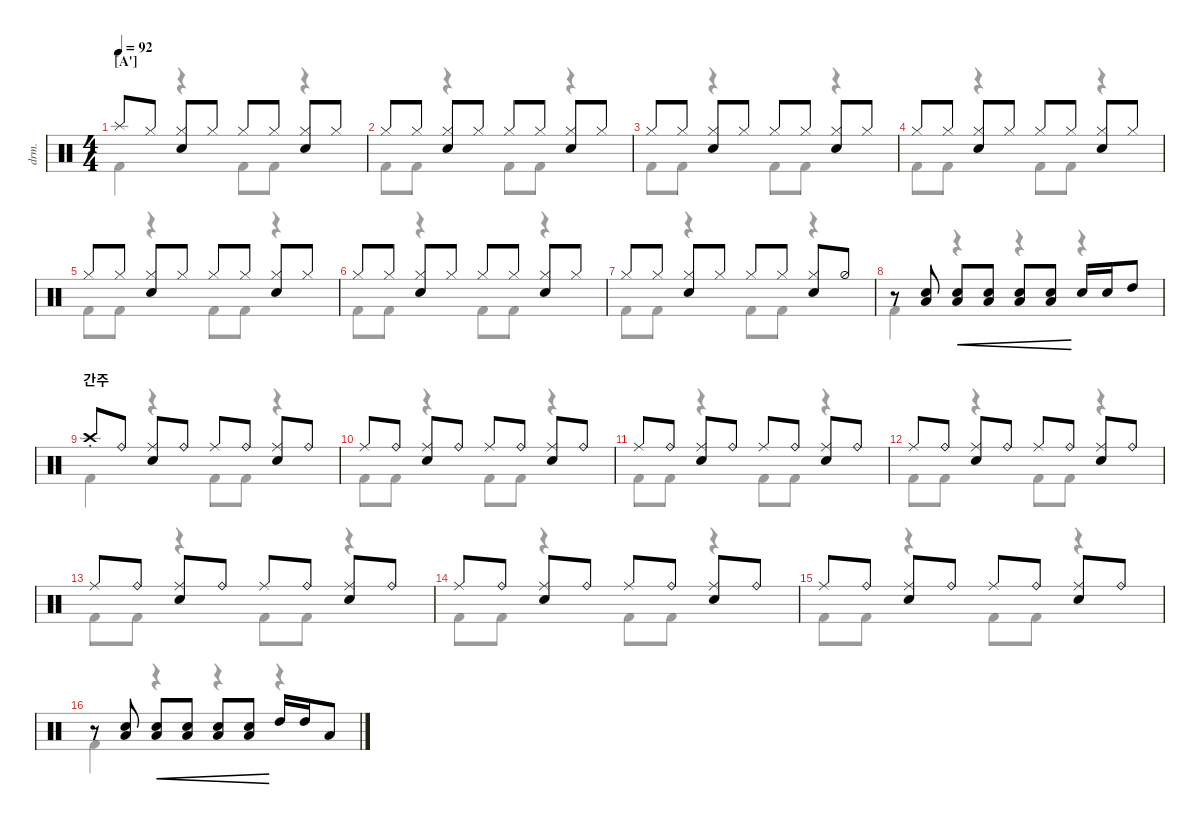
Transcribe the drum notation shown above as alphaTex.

\defaultSystemsLayout 4
\hideDynamics
\bracketExtendMode nobrackets
\track ("Drumkit" "drm.") {defaultSystemsLayout 4 instrument percussion}
\staff {score}
\articulation defaults
\voice
\ts (4 4)
\section ("A'" "")
\tempo 92
\clef neutral
\ks c "Splash (hit)".8{dy mf beam Up} "Hi-Hat (closed)".8{beam Up}
("Hi-Hat (closed)" "Snare (hit) 2").8{beam Up} "Hi-Hat (closed)".8{beam Up} "Hi-Hat (closed)".8{beam Up} "Hi-Hat (closed)".8{beam Up} ("Hi-Hat (closed)" "Snare (hit) 2").8{beam Up} "Hi-Hat (closed)".8{beam Up} |
"Hi-Hat (closed)".8{beam Up} "Hi-Hat (closed)".8{beam Up} ("Hi-Hat (closed)" "Snare (hit) 2").8{beam Up} "Hi-Hat (closed)".8{beam Up} "Hi-Hat (closed)".8{beam Up} "Hi-Hat (closed)".8{beam Up} ("Hi-Hat (closed)" "Snare (hit) 2").8{beam Up} "Hi-Hat (closed)".8{beam Up} |
"Hi-Hat (closed)".8{beam Up} "Hi-Hat (closed)".8{beam Up} ("Hi-Hat (closed)" "Snare (hit) 2").8{beam Up} "Hi-Hat (closed)".8{beam Up} "Hi-Hat (closed)".8{beam Up} "Hi-Hat (closed)".8{beam Up} ("Hi-Hat (closed)" "Snare (hit) 2").8{beam Up} "Hi-Hat (closed)".8{beam Up} |
"Hi-Hat (closed)".8{beam Up} "Hi-Hat (closed)".8{beam Up} ("Hi-Hat (closed)" "Snare (hit) 2").8{beam Up} "Hi-Hat (closed)".8{beam Up} "Hi-Hat (closed)".8{beam Up} "Hi-Hat (closed)".8{beam Up} ("Hi-Hat (closed)" "Snare (hit) 2").8{beam Up} "Hi-Hat (closed)".8{beam Up} |
"Hi-Hat (closed)".8{beam Up} "Hi-Hat (closed)".8{beam Up} ("Hi-Hat (closed)" "Snare (hit) 2").8{beam Up} "Hi-Hat (closed)".8{beam Up} "Hi-Hat (closed)".8{beam Up} "Hi-Hat (closed)".8{beam Up} ("Hi-Hat (closed)" "Snare (hit) 2").8{beam Up} "Hi-Hat (closed)".8{beam Up} |
"Hi-Hat (closed)".8{beam Up} "Hi-Hat (closed)".8{beam Up} ("Hi-Hat (closed)" "Snare (hit) 2").8{beam Up} "Hi-Hat (closed)".8{beam Up} "Hi-Hat (closed)".8{beam Up} "Hi-Hat (closed)".8{beam Up} ("Hi-Hat (closed)" "Snare (hit) 2").8{beam Up} "Hi-Hat (closed)".8{beam Up} |
"Hi-Hat (closed)".8{beam Up} "Hi-Hat (closed)".8{beam Up} ("Hi-Hat (closed)" "Snare (hit) 2").8{beam Up} "Hi-Hat (closed)".8{beam Up} "Hi-Hat (closed)".8{beam Up} "Hi-Hat (closed)".8{beam Up} ("Hi-Hat (closed)" "Snare (hit) 2").8{beam Up} "Hi-Hat (half)".8{beam Up} |
r.8{beam Up} ("Low Tom (hit)" "Snare (hit) 2").8{beam Up} ("Low Tom (hit)" "Snare (hit) 2").8{cre beam Up} ("Low Tom (hit)" "Snare (hit) 2").8{cre beam Up} ("Low Tom (hit)" "Snare (hit) 2").8{cre beam Up} ("Low Tom (hit)" "Snare (hit) 2").8{cre beam Up} "Snare (hit) 2".16{beam Up} "Snare (hit) 2".16{beam Up} "High Tom (hit)".8{beam Up} |
\section ("" "간주")
"Crash high (choke)".8{beam Up} "Ride (bell)".8{beam Up} ("Ride (middle)" "Snare (hit) 2").8{beam Up} "Ride (bell)".8{beam Up} "Ride (middle)".8{beam Up} "Ride (bell)".8{beam Up} ("Ride (middle)" "Snare (hit) 2").8{beam Up} "Ride (bell)".8{beam Up} |
"Ride (middle)".8{beam Up} "Ride (bell)".8{beam Up} ("Ride (middle)" "Snare (hit) 2").8{beam Up} "Ride (bell)".8{beam Up} "Ride (middle)".8{beam Up} "Ride (bell)".8{beam Up} ("Ride (middle)" "Snare (hit) 2").8{beam Up} "Ride (bell)".8{beam Up} |
"Ride (middle)".8{beam Up} "Ride (bell)".8{beam Up} ("Ride (middle)" "Snare (hit) 2").8{beam Up} "Ride (bell)".8{beam Up} "Ride (middle)".8{beam Up} "Ride (bell)".8{beam Up} ("Ride (middle)" "Snare (hit) 2").8{beam Up} "Ride (bell)".8{beam Up} |
"Ride (middle)".8{beam Up} "Ride (bell)".8{beam Up} ("Ride (middle)" "Snare (hit) 2").8{beam Up} "Ride (bell)".8{beam Up} "Ride (middle)".8{beam Up} "Ride (bell)".8{beam Up} ("Ride (middle)" "Snare (hit) 2").8{beam Up} "Ride (bell)".8{beam Up} |
"Ride (middle)".8{beam Up} "Ride (bell)".8{beam Up} ("Ride (middle)" "Snare (hit) 2").8{beam Up} "Ride (bell)".8{beam Up} "Ride (middle)".8{beam Up} "Ride (bell)".8{beam Up} ("Ride (middle)" "Snare (hit) 2").8{beam Up} "Ride (bell)".8{beam Up} |
"Ride (middle)".8{beam Up} "Ride (bell)".8{beam Up} ("Ride (middle)" "Snare (hit) 2").8{beam Up} "Ride (bell)".8{beam Up} "Ride (middle)".8{beam Up} "Ride (bell)".8{beam Up} ("Ride (middle)" "Snare (hit) 2").8{beam Up} "Ride (bell)".8{beam Up} |
"Ride (middle)".8{beam Up} "Ride (bell)".8{beam Up} ("Ride (middle)" "Snare (hit) 2").8{beam Up} "Ride (bell)".8{beam Up} "Ride (middle)".8{beam Up} "Ride (bell)".8{beam Up} ("Ride (middle)" "Snare (hit) 2").8{beam Up} "Ride (bell)".8{beam Up} |
r.8{beam Up} ("Low Tom (hit)" "Snare (hit) 2").8{beam Up} ("Low Tom (hit)" "Snare (hit) 2").8{cre beam Up} ("Low Tom (hit)" "Snare (hit) 2").8{cre beam Up} ("Low Tom (hit)" "Snare (hit) 2").8{cre beam Up} ("Low Tom (hit)" "Snare (hit) 2").8{cre beam Up} "High Tom (hit)".16{beam Up} "High Tom (hit)".16{beam Up} "Low Tom (hit)".8{beam Up}
\voice
\clef neutral
\ottava regular
\simile none
\ks c "Kick (hit) 2".4{dy mf beam Down}
r.4{beam Down} "Kick (hit) 2".8{beam Down} "Kick (hit) 2".8{beam Down} r.4{beam Down} |
"Kick (hit) 2".8{beam Down} "Kick (hit) 2".8{beam Down} r.4{beam Down} "Kick (hit) 2".8{beam Down} "Kick (hit) 2".8{beam Down} r.4{beam Down} |
"Kick (hit) 2".8{beam Down} "Kick (hit) 2".8{beam Down} r.4{beam Down} "Kick (hit) 2".8{beam Down} "Kick (hit) 2".8{beam Down} r.4{beam Down} |
"Kick (hit) 2".8{beam Down} "Kick (hit) 2".8{beam Down} r.4{beam Down} "Kick (hit) 2".8{beam Down} "Kick (hit) 2".8{beam Down} r.4{beam Down} |
"Kick (hit) 2".8{beam Down} "Kick (hit) 2".8{beam Down} r.4{beam Down} "Kick (hit) 2".8{beam Down} "Kick (hit) 2".8{beam Down} r.4{beam Down} |
"Kick (hit) 2".8{beam Down} "Kick (hit) 2".8{beam Down} r.4{beam Down} "Kick (hit) 2".8{beam Down} "Kick (hit) 2".8{beam Down} r.4{beam Down} |
"Kick (hit) 2".8{beam Down} "Kick (hit) 2".8{beam Down} r.4{beam Down} "Kick (hit) 2".8{beam Down} "Kick (hit) 2".8{beam Down} r.4{beam Down} |
"Kick (hit) 2".4{beam Down} r.4{beam Down} r.4{beam Down} r.4{beam Down} |
"Kick (hit) 2".4{beam Down} r.4{beam Down} "Kick (hit) 2".8{beam Down} "Kick (hit) 2".8{beam Down} r.4{beam Down} |
"Kick (hit) 2".8{beam Down} "Kick (hit) 2".8{beam Down} r.4{beam Down} "Kick (hit) 2".8{beam Down} "Kick (hit) 2".8{beam Down} r.4{beam Down} |
"Kick (hit) 2".8{beam Down} "Kick (hit) 2".8{beam Down} r.4{beam Down} "Kick (hit) 2".8{beam Down} "Kick (hit) 2".8{beam Down} r.4{beam Down} |
"Kick (hit) 2".8{beam Down} "Kick (hit) 2".8{beam Down} r.4{beam Down} "Kick (hit) 2".8{beam Down} "Kick (hit) 2".8{beam Down} r.4{beam Down} |
"Kick (hit) 2".8{beam Down} "Kick (hit) 2".8{beam Down} r.4{beam Down} "Kick (hit) 2".8{beam Down} "Kick (hit) 2".8{beam Down} r.4{beam Down} |
"Kick (hit) 2".8{beam Down} "Kick (hit) 2".8{beam Down} r.4{beam Down} "Kick (hit) 2".8{beam Down} "Kick (hit) 2".8{beam Down} r.4{beam Down} |
"Kick (hit) 2".8{beam Down} "Kick (hit) 2".8{beam Down} r.4{beam Down} "Kick (hit) 2".8{beam Down} "Kick (hit) 2".8{beam Down} r.4{beam Down} |
"Kick (hit) 2".4{beam Down} r.4{beam Down} r.4{beam Down} r.4{beam Down}
